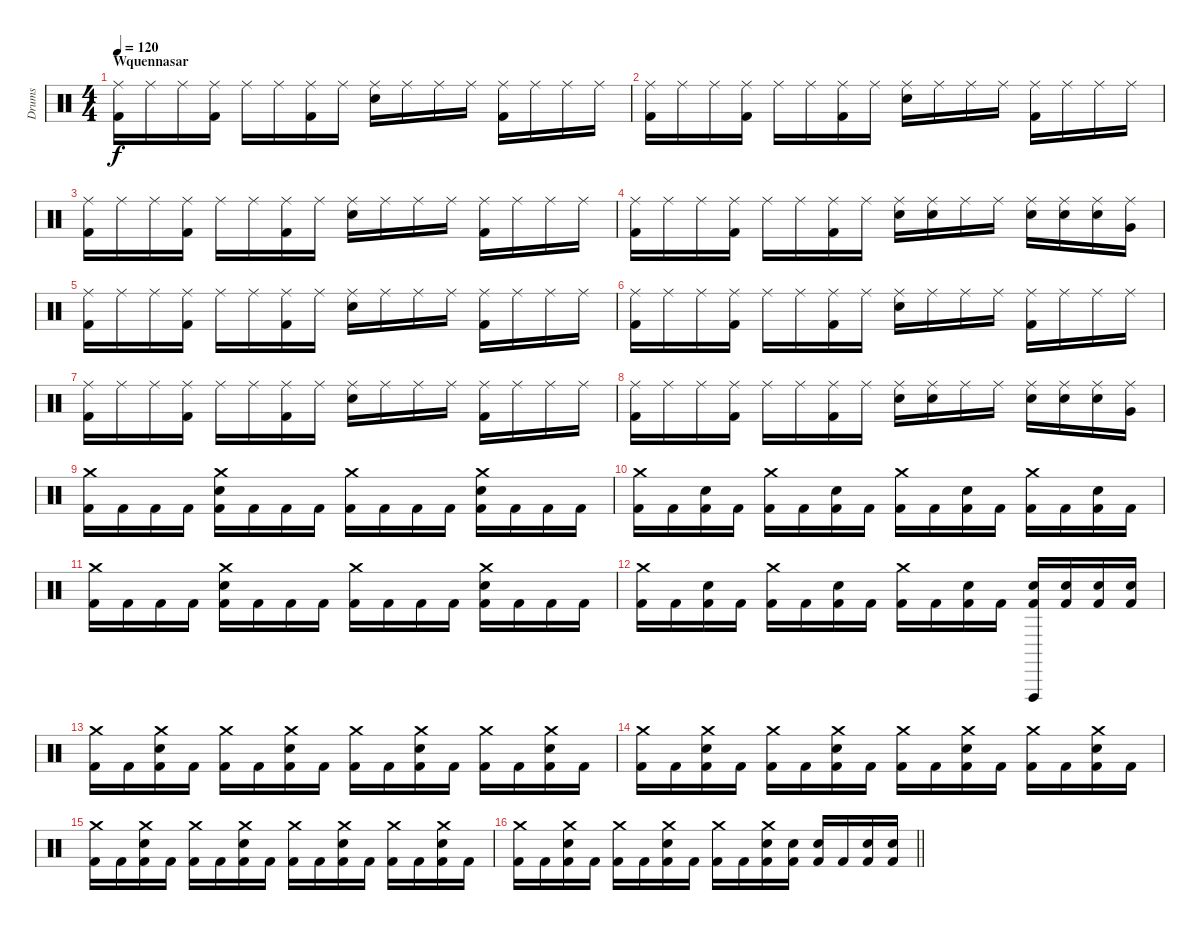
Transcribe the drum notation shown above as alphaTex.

\track ("Drums" "Drums") {instrument percussion}
\staff {score}
\articulation defaults
\ts (4 4)
\section ("" "Wquennasar")
\tempo 120
\clef neutral
\ks c
("Ride (middle)" "Kick (hit) 2").16{dy f} "Ride (middle)".16 "Ride (middle)".16 ("Ride (middle)" "Kick (hit) 2").16 "Ride (middle)".16 "Ride (middle)".16 ("Ride (middle)" "Kick (hit) 2").16 "Ride (middle)".16 ("Ride (middle)" "Electric Snare (hit)").16 "Ride (middle)".16 "Ride (middle)".16 "Ride (middle)".16 ("Ride (middle)" "Kick (hit) 2").16 "Ride (middle)".16 "Ride (middle)".16 "Ride (middle)".16 |
("Ride (middle)" "Kick (hit) 2").16 "Ride (middle)".16 "Ride (middle)".16 ("Ride (middle)" "Kick (hit) 2").16 "Ride (middle)".16 "Ride (middle)".16 ("Ride (middle)" "Kick (hit) 2").16 "Ride (middle)".16 ("Ride (middle)" "Electric Snare (hit)").16 "Ride (middle)".16 "Ride (middle)".16 "Ride (middle)".16 ("Ride (middle)" "Kick (hit) 2").16 "Ride (middle)".16 "Ride (middle)".16 "Ride (middle)".16 |
("Ride (middle)" "Kick (hit) 2").16 "Ride (middle)".16 "Ride (middle)".16 ("Ride (middle)" "Kick (hit) 2").16 "Ride (middle)".16 "Ride (middle)".16 ("Ride (middle)" "Kick (hit) 2").16 "Ride (middle)".16 ("Ride (middle)" "Electric Snare (hit)").16 "Ride (middle)".16 "Ride (middle)".16 "Ride (middle)".16 ("Ride (middle)" "Kick (hit) 2").16 "Ride (middle)".16 "Ride (middle)".16 "Ride (middle)".16 |
("Ride (middle)" "Kick (hit) 2").16 "Ride (middle)".16 "Ride (middle)".16 ("Ride (middle)" "Kick (hit) 2").16 "Ride (middle)".16 "Ride (middle)".16 ("Ride (middle)" "Kick (hit) 2").16 "Ride (middle)".16 ("Ride (middle)" "Electric Snare (hit)").16 ("Ride (middle)" "Electric Snare (hit)").16 "Ride (middle)".16 "Ride (middle)".16 ("Ride (middle)" "Electric Snare (hit)").16 ("Ride (middle)" "Electric Snare (hit)").16 ("Ride (middle)" "Electric Snare (hit)").16 ("Ride (middle)" "Very Low Tom (hit)").16 |
("Ride (middle)" "Kick (hit) 2").16 "Ride (middle)".16 "Ride (middle)".16 ("Ride (middle)" "Kick (hit) 2").16 "Ride (middle)".16 "Ride (middle)".16 ("Ride (middle)" "Kick (hit) 2").16 "Ride (middle)".16 ("Ride (middle)" "Electric Snare (hit)").16 "Ride (middle)".16 "Ride (middle)".16 "Ride (middle)".16 ("Ride (middle)" "Kick (hit) 2").16 "Ride (middle)".16 "Ride (middle)".16 "Ride (middle)".16 |
("Ride (middle)" "Kick (hit) 2").16 "Ride (middle)".16 "Ride (middle)".16 ("Ride (middle)" "Kick (hit) 2").16 "Ride (middle)".16 "Ride (middle)".16 ("Ride (middle)" "Kick (hit) 2").16 "Ride (middle)".16 ("Ride (middle)" "Electric Snare (hit)").16 "Ride (middle)".16 "Ride (middle)".16 "Ride (middle)".16 ("Ride (middle)" "Kick (hit) 2").16 "Ride (middle)".16 "Ride (middle)".16 "Ride (middle)".16 |
("Ride (middle)" "Kick (hit) 2").16 "Ride (middle)".16 "Ride (middle)".16 ("Ride (middle)" "Kick (hit) 2").16 "Ride (middle)".16 "Ride (middle)".16 ("Ride (middle)" "Kick (hit) 2").16 "Ride (middle)".16 ("Ride (middle)" "Electric Snare (hit)").16 "Ride (middle)".16 "Ride (middle)".16 "Ride (middle)".16 ("Ride (middle)" "Kick (hit) 2").16 "Ride (middle)".16 "Ride (middle)".16 "Ride (middle)".16 |
("Ride (middle)" "Kick (hit) 2").16 "Ride (middle)".16 "Ride (middle)".16 ("Ride (middle)" "Kick (hit) 2").16 "Ride (middle)".16 "Ride (middle)".16 ("Ride (middle)" "Kick (hit) 2").16 "Ride (middle)".16 ("Ride (middle)" "Electric Snare (hit)").16 ("Ride (middle)" "Electric Snare (hit)").16 "Ride (middle)".16 "Ride (middle)".16 ("Ride (middle)" "Electric Snare (hit)").16 ("Ride (middle)" "Electric Snare (hit)").16 ("Ride (middle)" "Electric Snare (hit)").16 ("Ride (middle)" "Very Low Tom (hit)").16 |
("Crash medium (hit)" "Kick (hit) 2").16 "Kick (hit) 2".16 "Kick (hit) 2".16 "Kick (hit) 2".16 ("Crash medium (hit)" "Electric Snare (hit)" "Kick (hit) 2").16 "Kick (hit) 2".16 "Kick (hit) 2".16 "Kick (hit) 2".16 ("Crash medium (hit)" "Kick (hit) 2").16 "Kick (hit) 2".16 "Kick (hit) 2".16 "Kick (hit) 2".16 ("Crash medium (hit)" "Electric Snare (hit)" "Kick (hit) 2").16 "Kick (hit) 2".16 "Kick (hit) 2".16 "Kick (hit) 2".16 |
("Crash medium (hit)" "Kick (hit) 2").16 "Kick (hit) 2".16 ("Electric Snare (hit)" "Kick (hit) 2").16 "Kick (hit) 2".16 ("Crash medium (hit)" "Kick (hit) 2").16 "Kick (hit) 2".16 ("Electric Snare (hit)" "Kick (hit) 2").16 "Kick (hit) 2".16 ("Crash medium (hit)" "Kick (hit) 2").16 "Kick (hit) 2".16 ("Electric Snare (hit)" "Kick (hit) 2").16 "Kick (hit) 2".16 ("Crash medium (hit)" "Kick (hit) 2").16 "Kick (hit) 2".16 ("Electric Snare (hit)" "Kick (hit) 2").16 "Kick (hit) 2".16 |
("Crash medium (hit)" "Kick (hit) 2").16 "Kick (hit) 2".16 "Kick (hit) 2".16 "Kick (hit) 2".16 ("Crash medium (hit)" "Electric Snare (hit)" "Kick (hit) 2").16 "Kick (hit) 2".16 "Kick (hit) 2".16 "Kick (hit) 2".16 ("Crash medium (hit)" "Kick (hit) 2").16 "Kick (hit) 2".16 "Kick (hit) 2".16 "Kick (hit) 2".16 ("Crash medium (hit)" "Electric Snare (hit)" "Kick (hit) 2").16 "Kick (hit) 2".16 "Kick (hit) 2".16 "Kick (hit) 2".16 |
("Crash medium (hit)" "Kick (hit) 2").16 "Kick (hit) 2".16 ("Electric Snare (hit)" "Kick (hit) 2").16 "Kick (hit) 2".16 ("Crash medium (hit)" "Kick (hit) 2").16 "Kick (hit) 2".16 ("Electric Snare (hit)" "Kick (hit) 2").16 "Kick (hit) 2".16 ("Crash medium (hit)" "Kick (hit) 2").16 "Kick (hit) 2".16 ("Electric Snare (hit)" "Kick (hit) 2").16 "Kick (hit) 2".16 ("Vibraslap (hit)" "Electric Snare (hit)" "Kick (hit) 2").16 ("Electric Snare (hit)" "Kick (hit) 2").16 ("Electric Snare (hit)" "Kick (hit) 2").16 ("Electric Snare (hit)" "Kick (hit) 2").16 |
("Crash medium (hit)" "Kick (hit) 2").16 "Kick (hit) 2".16 ("Crash medium (hit)" "Electric Snare (hit)" "Kick (hit) 2").16 "Kick (hit) 2".16 ("Crash medium (hit)" "Kick (hit) 2").16 "Kick (hit) 2".16 ("Crash medium (hit)" "Electric Snare (hit)" "Kick (hit) 2").16 "Kick (hit) 2".16 ("Crash medium (hit)" "Kick (hit) 2").16 "Kick (hit) 2".16 ("Crash medium (hit)" "Electric Snare (hit)" "Kick (hit) 2").16 "Kick (hit) 2".16 ("Crash medium (hit)" "Kick (hit) 2").16 "Kick (hit) 2".16 ("Crash medium (hit)" "Electric Snare (hit)" "Kick (hit) 2").16 "Kick (hit) 2".16 |
("Crash medium (hit)" "Kick (hit) 2").16 "Kick (hit) 2".16 ("Crash medium (hit)" "Electric Snare (hit)" "Kick (hit) 2").16 "Kick (hit) 2".16 ("Crash medium (hit)" "Kick (hit) 2").16 "Kick (hit) 2".16 ("Crash medium (hit)" "Electric Snare (hit)" "Kick (hit) 2").16 "Kick (hit) 2".16 ("Crash medium (hit)" "Kick (hit) 2").16 "Kick (hit) 2".16 ("Crash medium (hit)" "Electric Snare (hit)" "Kick (hit) 2").16 "Kick (hit) 2".16 ("Crash medium (hit)" "Kick (hit) 2").16 "Kick (hit) 2".16 ("Crash medium (hit)" "Electric Snare (hit)" "Kick (hit) 2").16 "Kick (hit) 2".16 |
("Crash medium (hit)" "Kick (hit) 2").16 "Kick (hit) 2".16 ("Crash medium (hit)" "Electric Snare (hit)" "Kick (hit) 2").16 "Kick (hit) 2".16 ("Crash medium (hit)" "Kick (hit) 2").16 "Kick (hit) 2".16 ("Crash medium (hit)" "Electric Snare (hit)" "Kick (hit) 2").16 "Kick (hit) 2".16 ("Crash medium (hit)" "Kick (hit) 2").16 "Kick (hit) 2".16 ("Crash medium (hit)" "Electric Snare (hit)" "Kick (hit) 2").16 "Kick (hit) 2".16 ("Crash medium (hit)" "Kick (hit) 2").16 "Kick (hit) 2".16 ("Crash medium (hit)" "Electric Snare (hit)" "Kick (hit) 2").16 "Kick (hit) 2".16 |
\barLineRight lightlight
("Crash medium (hit)" "Kick (hit) 2").16 "Kick (hit) 2".16 ("Crash medium (hit)" "Electric Snare (hit)" "Kick (hit) 2").16 "Kick (hit) 2".16 ("Crash medium (hit)" "Kick (hit) 2").16 "Kick (hit) 2".16 ("Crash medium (hit)" "Electric Snare (hit)" "Kick (hit) 2").16 "Kick (hit) 2".16 ("Crash medium (hit)" "Kick (hit) 2").16 "Kick (hit) 2".16 ("Crash medium (hit)" "Electric Snare (hit)" "Kick (hit) 2").16 ("Electric Snare (hit)" "Kick (hit) 2").16 ("Electric Snare (hit)" "Kick (hit) 2").16 "Kick (hit) 2".16 ("Electric Snare (hit)" "Kick (hit) 2").16 ("Electric Snare (hit)" "Kick (hit) 2").16
